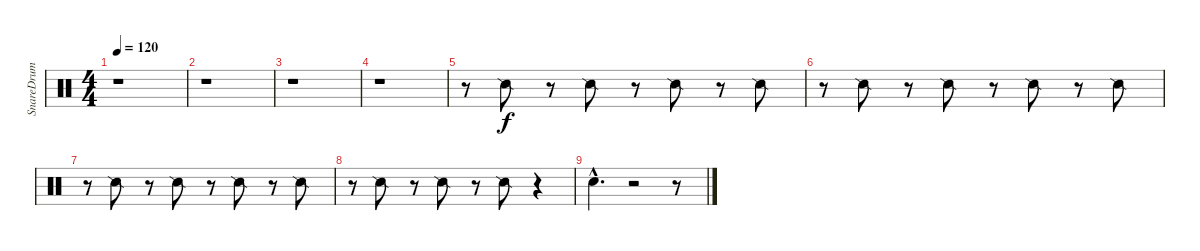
\track ("SnareDrum" "SnareDrum") {instrument percussion}
\staff {score}
\articulation defaults
\ts (4 4)
\tempo 120
\clef neutral
\ks c
r.1{dy f} |
r.1 |
r.1 |
r.1 |
r.8 "Snare (side stick) 2".8 r.8 "Snare (side stick) 2".8 r.8 "Snare (side stick) 2".8 r.8 "Snare (side stick) 2".8 |
r.8 "Snare (side stick) 2".8 r.8 "Snare (side stick) 2".8 r.8 "Snare (side stick) 2".8 r.8 "Snare (side stick) 2".8 |
r.8 "Snare (side stick) 2".8 r.8 "Snare (side stick) 2".8 r.8 "Snare (side stick) 2".8 r.8 "Snare (side stick) 2".8 |
r.8 "Snare (side stick) 2".8 r.8 "Snare (side stick) 2".8 r.8 "Snare (side stick) 2".8 r.4 |
"Snare (hit) 2"{hac}.4{d} r.2 r.8
